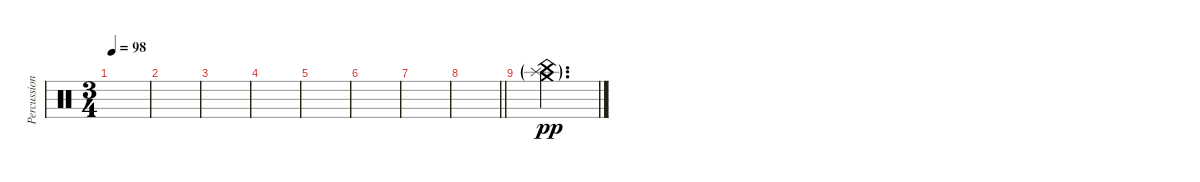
\track ("Percussion" "Percussion") {instrument percussion}
\staff {score}
\articulation defaults
\ts (3 4)
\tempo 98
\clef neutral
\ks c
|
|
|
|
|
|
|
\barLineRight lightlight
|
("China (hit)"{g} "Splash (hit)"{g} "Crash medium (hit)"{g}).2{d dy pp}
